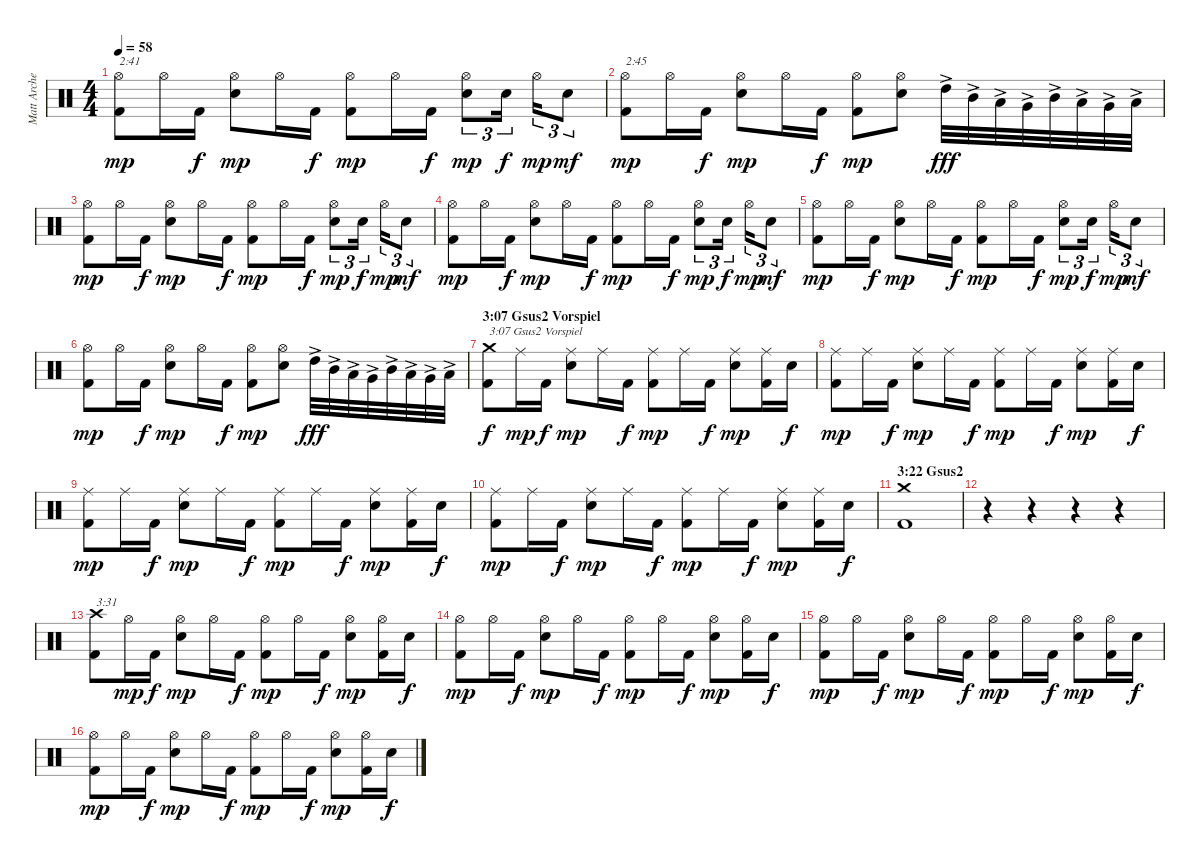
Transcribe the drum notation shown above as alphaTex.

\track ("Matt Archer" "Matt Arche") {instrument percussion}
\staff {score}
\articulation defaults
\ts (4 4)
\tempo 58
\clef neutral
\ks c
("Kick (hit) 2" "Hi-Hat (open)").8{txt "2:41" dy mp} "Hi-Hat (open)".16 "Kick (hit) 2".16{dy f} ("Electric Snare (hit)" "Hi-Hat (open)").8{dy mp} "Hi-Hat (open)".16 "Kick (hit) 2".16{dy f} ("Kick (hit) 2" "Hi-Hat (open)").8{dy mp} "Hi-Hat (open)".16 "Kick (hit) 2".16{dy f} ("Electric Snare (hit)" "Hi-Hat (open)").8{tu (3 2) dy mp} "Electric Snare (hit)".16{tu (3 2) dy f} "Hi-Hat (open)".16{tu (3 2) dy mp} "Electric Snare (hit)".8{tu (3 2) dy mf} |
("Kick (hit) 2" "Hi-Hat (open)").8{txt "2:45" dy mp} "Hi-Hat (open)".16 "Kick (hit) 2".16{dy f} ("Electric Snare (hit)" "Hi-Hat (open)").8{dy mp} "Hi-Hat (open)".16 "Kick (hit) 2".16{dy f} ("Kick (hit) 2" "Hi-Hat (open)").8{dy mp} ("Electric Snare (hit)" "Hi-Hat (open)").8 "High Tom (hit)"{ac}.32{dy fff} "Mid Tom (hit)"{ac}.32 "Low Tom (hit)"{ac}.32 "Very Low Tom (hit)"{ac}.32 "Mid Tom (hit)"{ac}.32 "Low Tom (hit)"{ac}.32 "Very Low Tom (hit)"{ac}.32 "Low Floor Tom (hit)"{ac}.32 |
("Kick (hit) 2" "Hi-Hat (open)").8{dy mp} "Hi-Hat (open)".16 "Kick (hit) 2".16{dy f} ("Electric Snare (hit)" "Hi-Hat (open)").8{dy mp} "Hi-Hat (open)".16 "Kick (hit) 2".16{dy f} ("Kick (hit) 2" "Hi-Hat (open)").8{dy mp} "Hi-Hat (open)".16 "Kick (hit) 2".16{dy f} ("Electric Snare (hit)" "Hi-Hat (open)").8{tu (3 2) dy mp} "Electric Snare (hit)".16{tu (3 2) dy f} "Hi-Hat (open)".16{tu (3 2) dy mp} "Electric Snare (hit)".8{tu (3 2) dy mf} |
("Kick (hit) 2" "Hi-Hat (open)").8{dy mp} "Hi-Hat (open)".16 "Kick (hit) 2".16{dy f} ("Electric Snare (hit)" "Hi-Hat (open)").8{dy mp} "Hi-Hat (open)".16 "Kick (hit) 2".16{dy f} ("Kick (hit) 2" "Hi-Hat (open)").8{dy mp} "Hi-Hat (open)".16 "Kick (hit) 2".16{dy f} ("Electric Snare (hit)" "Hi-Hat (open)").8{tu (3 2) dy mp} "Electric Snare (hit)".16{tu (3 2) dy f} "Hi-Hat (open)".16{tu (3 2) dy mp} "Electric Snare (hit)".8{tu (3 2) dy mf} |
("Kick (hit) 2" "Hi-Hat (open)").8{dy mp} "Hi-Hat (open)".16 "Kick (hit) 2".16{dy f} ("Electric Snare (hit)" "Hi-Hat (open)").8{dy mp} "Hi-Hat (open)".16 "Kick (hit) 2".16{dy f} ("Kick (hit) 2" "Hi-Hat (open)").8{dy mp} "Hi-Hat (open)".16 "Kick (hit) 2".16{dy f} ("Electric Snare (hit)" "Hi-Hat (open)").8{tu (3 2) dy mp} "Electric Snare (hit)".16{tu (3 2) dy f} "Hi-Hat (open)".16{tu (3 2) dy mp} "Electric Snare (hit)".8{tu (3 2) dy mf} |
("Kick (hit) 2" "Hi-Hat (open)").8{dy mp} "Hi-Hat (open)".16 "Kick (hit) 2".16{dy f} ("Electric Snare (hit)" "Hi-Hat (open)").8{dy mp} "Hi-Hat (open)".16 "Kick (hit) 2".16{dy f} ("Kick (hit) 2" "Hi-Hat (open)").8{dy mp} ("Electric Snare (hit)" "Hi-Hat (open)").8 "High Tom (hit)"{ac}.32{dy fff} "Mid Tom (hit)"{ac}.32 "Low Tom (hit)"{ac}.32 "Very Low Tom (hit)"{ac}.32 "Mid Tom (hit)"{ac}.32 "Low Tom (hit)"{ac}.32 "Very Low Tom (hit)"{ac}.32 "Low Floor Tom (hit)"{ac}.32 |
\section ("" "3:07 Gsus2 Vorspiel")
("Kick (hit) 2" "Crash medium (hit)").8{txt "3:07 Gsus2 Vorspiel" dy f} "Ride (middle)".16{dy mp} "Kick (hit) 2".16{dy f} ("Electric Snare (hit)" "Ride (middle)").8{dy mp} "Ride (middle)".16 "Kick (hit) 2".16{dy f} ("Kick (hit) 2" "Ride (middle)").8{dy mp} "Ride (middle)".16 "Kick (hit) 2".16{dy f} ("Electric Snare (hit)" "Ride (middle)").8{dy mp} ("Kick (hit) 2" "Ride (middle)").16 "Electric Snare (hit)".16{dy f} |
("Kick (hit) 2" "Ride (middle)").8{dy mp} "Ride (middle)".16 "Kick (hit) 2".16{dy f} ("Electric Snare (hit)" "Ride (middle)").8{dy mp} "Ride (middle)".16 "Kick (hit) 2".16{dy f} ("Kick (hit) 2" "Ride (middle)").8{dy mp} "Ride (middle)".16 "Kick (hit) 2".16{dy f} ("Electric Snare (hit)" "Ride (middle)").8{dy mp} ("Kick (hit) 2" "Ride (middle)").16 "Electric Snare (hit)".16{dy f} |
("Kick (hit) 2" "Ride (middle)").8{dy mp} "Ride (middle)".16 "Kick (hit) 2".16{dy f} ("Electric Snare (hit)" "Ride (middle)").8{dy mp} "Ride (middle)".16 "Kick (hit) 2".16{dy f} ("Kick (hit) 2" "Ride (middle)").8{dy mp} "Ride (middle)".16 "Kick (hit) 2".16{dy f} ("Electric Snare (hit)" "Ride (middle)").8{dy mp} ("Kick (hit) 2" "Ride (middle)").16 "Electric Snare (hit)".16{dy f} |
("Kick (hit) 2" "Ride (middle)").8{dy mp} "Ride (middle)".16 "Kick (hit) 2".16{dy f} ("Electric Snare (hit)" "Ride (middle)").8{dy mp} "Ride (middle)".16 "Kick (hit) 2".16{dy f} ("Kick (hit) 2" "Ride (middle)").8{dy mp} "Ride (middle)".16 "Kick (hit) 2".16{dy f} ("Electric Snare (hit)" "Ride (middle)").8{dy mp} ("Kick (hit) 2" "Ride (middle)").16 "Electric Snare (hit)".16{dy f} |
\section ("" "3:22 Gsus2")
("Kick (hit) 2" "Crash medium (hit)").1 |
r.4 r.4 r.4 r.4 |
("Kick (hit) 2" "Crash high (hit)").8{txt "3:31"} "Hi-Hat (open)".16{dy mp} "Kick (hit) 2".16{dy f} ("Electric Snare (hit)" "Hi-Hat (open)").8{dy mp} "Hi-Hat (open)".16 "Kick (hit) 2".16{dy f} ("Kick (hit) 2" "Hi-Hat (open)").8{dy mp} "Hi-Hat (open)".16 "Kick (hit) 2".16{dy f} ("Electric Snare (hit)" "Hi-Hat (open)").8{dy mp} ("Kick (hit) 2" "Hi-Hat (open)").16 "Electric Snare (hit)".16{dy f} |
("Kick (hit) 2" "Hi-Hat (open)").8{dy mp} "Hi-Hat (open)".16 "Kick (hit) 2".16{dy f} ("Electric Snare (hit)" "Hi-Hat (open)").8{dy mp} "Hi-Hat (open)".16 "Kick (hit) 2".16{dy f} ("Kick (hit) 2" "Hi-Hat (open)").8{dy mp} "Hi-Hat (open)".16 "Kick (hit) 2".16{dy f} ("Electric Snare (hit)" "Hi-Hat (open)").8{dy mp} ("Kick (hit) 2" "Hi-Hat (open)").16 "Electric Snare (hit)".16{dy f} |
("Kick (hit) 2" "Hi-Hat (open)").8{dy mp} "Hi-Hat (open)".16 "Kick (hit) 2".16{dy f} ("Electric Snare (hit)" "Hi-Hat (open)").8{dy mp} "Hi-Hat (open)".16 "Kick (hit) 2".16{dy f} ("Kick (hit) 2" "Hi-Hat (open)").8{dy mp} "Hi-Hat (open)".16 "Kick (hit) 2".16{dy f} ("Electric Snare (hit)" "Hi-Hat (open)").8{dy mp} ("Kick (hit) 2" "Hi-Hat (open)").16 "Electric Snare (hit)".16{dy f} |
("Kick (hit) 2" "Hi-Hat (open)").8{dy mp} "Hi-Hat (open)".16 "Kick (hit) 2".16{dy f} ("Electric Snare (hit)" "Hi-Hat (open)").8{dy mp} "Hi-Hat (open)".16 "Kick (hit) 2".16{dy f} ("Kick (hit) 2" "Hi-Hat (open)").8{dy mp} "Hi-Hat (open)".16 "Kick (hit) 2".16{dy f} ("Electric Snare (hit)" "Hi-Hat (open)").8{dy mp} ("Kick (hit) 2" "Hi-Hat (open)").16 "Electric Snare (hit)".16{dy f}
